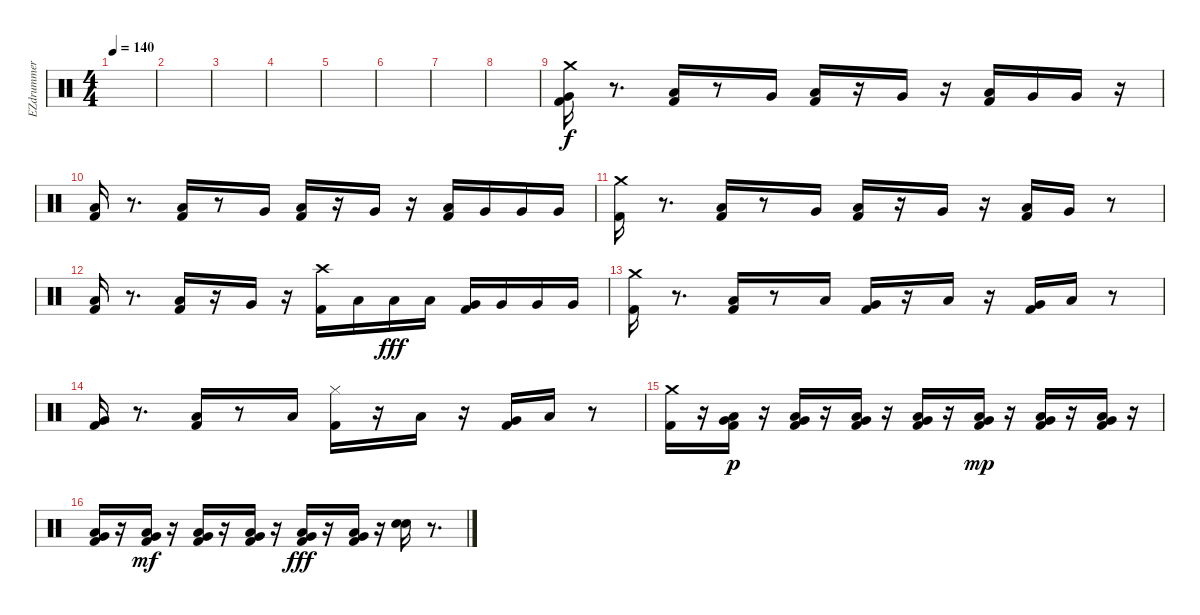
\track ("EZdrummer" "EZdrummer") {instrument percussion}
\staff {score}
\articulation defaults
\ts (4 4)
\tempo 140
\clef neutral
\ks c
|
|
|
|
|
|
|
|
("Crash medium (hit)" "Kick (hit) 2" "Very Low Tom (hit)").16 r.8{d} ("Kick (hit) 2" "Low Tom (hit)").16 r.8 "Very Low Tom (hit)".16 ("Kick (hit) 2" "Low Tom (hit)").16 r.16 "Very Low Tom (hit)".16 r.16 ("Kick (hit) 2" "Low Tom (hit)").16 "Very Low Tom (hit)".16 "Very Low Tom (hit)".16 r.16 |
("Kick (hit) 2" "Low Tom (hit)").16 r.8{d} ("Kick (hit) 2" "Low Tom (hit)").16 r.8 "Very Low Tom (hit)".16 ("Kick (hit) 2" "Low Tom (hit)").16 r.16 "Very Low Tom (hit)".16 r.16 ("Kick (hit) 2" "Low Tom (hit)").16 "Very Low Tom (hit)".16 "Very Low Tom (hit)".16 "Very Low Tom (hit)".16 |
("Crash medium (hit)" "Kick (hit) 2").16 r.8{d} ("Kick (hit) 2" "Low Tom (hit)").16 r.8 "Very Low Tom (hit)".16 ("Kick (hit) 2" "Low Tom (hit)").16 r.16 "Very Low Tom (hit)".16 r.16 ("Kick (hit) 2" "Low Tom (hit)").16 "Very Low Tom (hit)".16 r.8 |
("Kick (hit) 2" "Low Tom (hit)").16 r.8{d} ("Kick (hit) 2" "Low Tom (hit)").16 r.16 "Very Low Tom (hit)".16 r.16 ("Crash high (hit)" "Kick (hit) 2").16 "Low Tom (hit)".16{dy f} "Low Tom (hit)".16{dy fff} "Low Tom (hit)".16 ("Kick (hit) 2" "Very Low Tom (hit)").16 "Very Low Tom (hit)".16 "Very Low Tom (hit)".16 "Very Low Tom (hit)".16 |
("Crash medium (hit)" "Kick (hit) 2").16 r.8{d} ("Kick (hit) 2" "Low Tom (hit)").16 r.8 "Low Tom (hit)".16 ("Kick (hit) 2" "Very Low Tom (hit)").16 r.16 "Low Tom (hit)".16 r.16 ("Kick (hit) 2" "Very Low Tom (hit)").16 "Low Tom (hit)".16 r.8 |
("Kick (hit) 2" "Very Low Tom (hit)").16 r.8{d} ("Kick (hit) 2" "Low Tom (hit)").16 r.8 "Low Tom (hit)".16 ("Kick (hit) 2" "Hi-Hat (closed)").16 r.16 "Low Tom (hit)".16 r.16 ("Kick (hit) 2" "Very Low Tom (hit)").16 "Low Tom (hit)".16 r.8 |
("Crash medium (hit)" "Kick (hit) 2").16 r.16 ("Kick (hit) 2" "Low Floor Tom (hit)" "Very Low Tom (hit)").16{dy p} r.16 ("Kick (hit) 2" "Low Floor Tom (hit)" "Very Low Tom (hit)").16 r.16 ("Kick (hit) 2" "Low Floor Tom (hit)" "Very Low Tom (hit)").16 r.16 ("Kick (hit) 2" "Low Floor Tom (hit)" "Very Low Tom (hit)").16 r.16 ("Kick (hit) 2" "Low Floor Tom (hit)" "Very Low Tom (hit)").16{dy mp} r.16 ("Kick (hit) 2" "Low Floor Tom (hit)" "Very Low Tom (hit)").16 r.16 ("Kick (hit) 2" "Low Floor Tom (hit)" "Very Low Tom (hit)").16 r.16 |
("Kick (hit) 2" "Low Floor Tom (hit)" "Very Low Tom (hit)").16 r.16 ("Kick (hit) 2" "Low Floor Tom (hit)" "Very Low Tom (hit)").16{dy mf} r.16 ("Kick (hit) 2" "Low Floor Tom (hit)" "Very Low Tom (hit)").16 r.16 ("Kick (hit) 2" "Low Floor Tom (hit)" "Very Low Tom (hit)").16 r.16 ("Kick (hit) 2" "Low Floor Tom (hit)" "Very Low Tom (hit)").16{dy fff} r.16 ("Kick (hit) 2" "Low Floor Tom (hit)" "Very Low Tom (hit)").16 r.16 ("Snare (hit) 2" "Snare (hit) 2").16 r.8{d}
